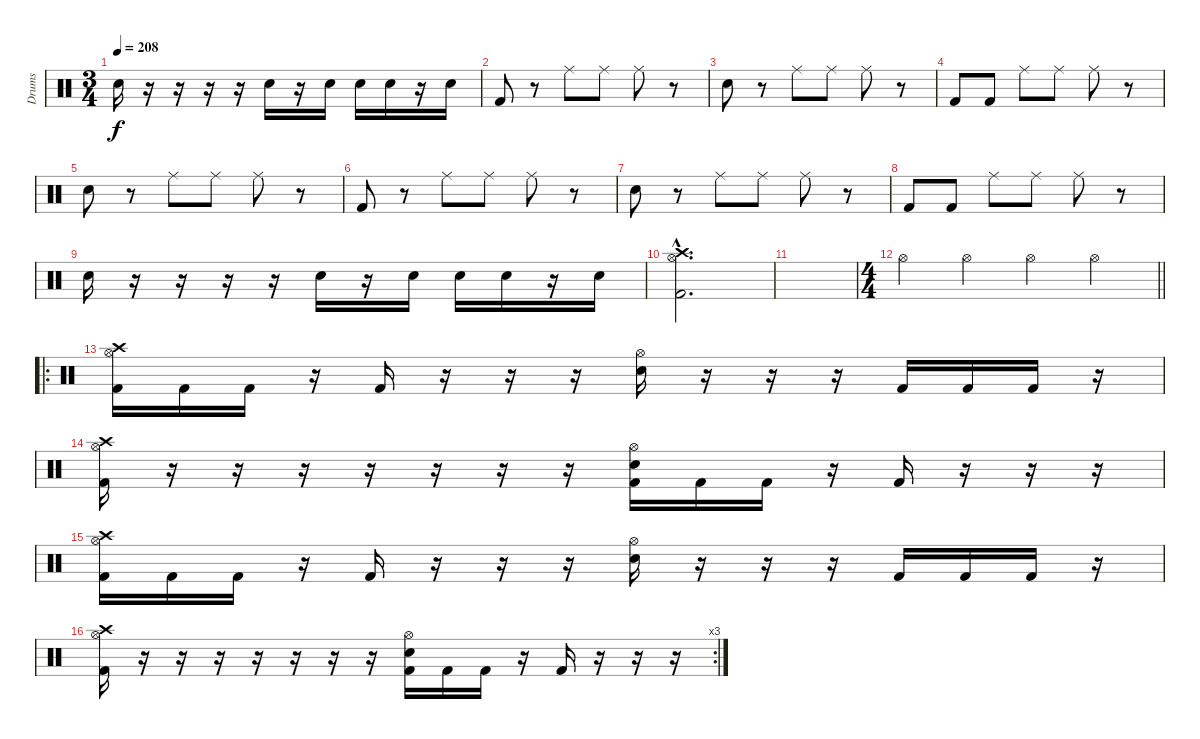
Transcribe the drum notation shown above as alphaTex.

\track ("Drums" "Drums") {instrument percussion}
\staff {score}
\articulation defaults
\ts (3 4)
\tempo 208
\clef neutral
\ks c "Snare (hit) 2".16{dy f}
r.16 r.16 r.16 r.16 "Snare (hit) 2".16 r.16 "Snare (hit) 2".16 "Snare (hit) 2".16 "Snare (hit) 2".16 r.16 "Snare (hit) 2".16 |
"Kick (hit) 2".8 r.8 "Ride (middle)".8 "Ride (middle)".8 "Ride (middle)".8 r.8 |
"Snare (hit) 2".8 r.8 "Ride (middle)".8 "Ride (middle)".8 "Ride (middle)".8 r.8 |
"Kick (hit) 2".8 "Kick (hit) 2".8 "Ride (middle)".8 "Ride (middle)".8 "Ride (middle)".8 r.8 |
"Snare (hit) 2".8 r.8 "Ride (middle)".8 "Ride (middle)".8 "Ride (middle)".8 r.8 |
"Kick (hit) 2".8 r.8 "Ride (middle)".8 "Ride (middle)".8 "Ride (middle)".8 r.8 |
"Snare (hit) 2".8 r.8 "Ride (middle)".8 "Ride (middle)".8 "Ride (middle)".8 r.8 |
"Kick (hit) 2".8 "Kick (hit) 2".8 "Ride (middle)".8 "Ride (middle)".8 "Ride (middle)".8 r.8 |
"Snare (hit) 2".16 r.16 r.16 r.16 r.16 "Snare (hit) 2".16 r.16 "Snare (hit) 2".16 "Snare (hit) 2".16 "Snare (hit) 2".16 r.16 "Snare (hit) 2".16 |
("Crash high (hit)"{hac} "Hi-Hat (open)"{hac} "Kick (hit) 2"{hac}).2{d} |
|
\ts (4 4)
\barLineRight lightlight "Hi-Hat (open)".4 "Hi-Hat (open)".4 "Hi-Hat (open)".4 "Hi-Hat (open)".4
|
\ro
("Crash high (hit)" "Hi-Hat (open)" "Kick (hit) 2").16 "Kick (hit) 2".16 "Kick (hit) 2".16 r.16 "Kick (hit) 2".16 r.16 r.16 r.16 ("Hi-Hat (open)" "Snare (hit) 2").16 r.16 r.16 r.16 "Kick (hit) 2".16 "Kick (hit) 2".16 "Kick (hit) 2".16 r.16 |
("Crash high (hit)" "Hi-Hat (open)" "Kick (hit) 2").16 r.16 r.16 r.16 r.16 r.16 r.16 r.16 ("Hi-Hat (open)" "Snare (hit) 2" "Kick (hit) 2").16 "Kick (hit) 2".16 "Kick (hit) 2".16 r.16 "Kick (hit) 2".16 r.16 r.16 r.16 |
("Crash high (hit)" "Hi-Hat (open)" "Kick (hit) 2").16 "Kick (hit) 2".16 "Kick (hit) 2".16 r.16 "Kick (hit) 2".16 r.16 r.16 r.16 ("Hi-Hat (open)" "Snare (hit) 2").16 r.16 r.16 r.16 "Kick (hit) 2".16 "Kick (hit) 2".16 "Kick (hit) 2".16 r.16 |
\rc 3
("Crash high (hit)" "Hi-Hat (open)" "Kick (hit) 2").16 r.16 r.16 r.16 r.16 r.16 r.16 r.16 ("Hi-Hat (open)" "Snare (hit) 2" "Kick (hit) 2").16 "Kick (hit) 2".16 "Kick (hit) 2".16 r.16 "Kick (hit) 2".16 r.16 r.16 r.16
